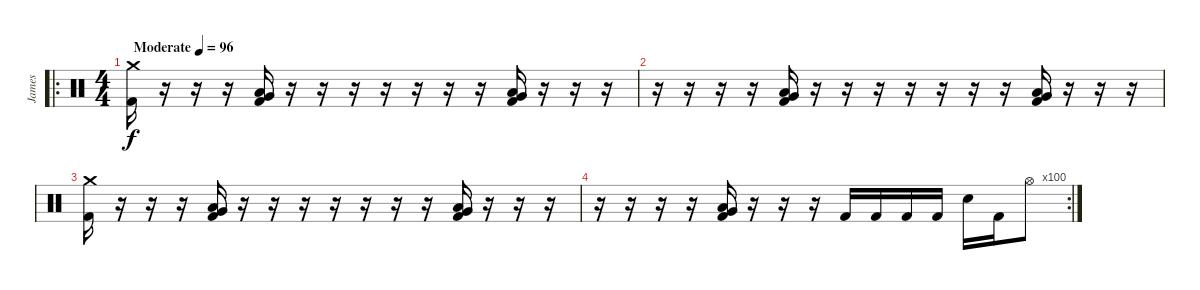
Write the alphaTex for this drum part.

\track ("James" "James") {instrument percussion}
\staff {score}
\articulation defaults
\ro
\ts (4 4)
\tempo (96 "Moderate")
\clef neutral
\ks c
("Crash medium (hit)" "Kick (hit) 2").16{dy f} r.16 r.16 r.16 ("Low Tom (hit)" "Very Low Tom (hit)" "Kick (hit) 2").16 r.16 r.16 r.16 r.16 r.16 r.16 r.16 ("Low Tom (hit)" "Very Low Tom (hit)" "Kick (hit) 2").16 r.16 r.16 r.16 |
r.16 r.16 r.16 r.16 ("Low Tom (hit)" "Very Low Tom (hit)" "Kick (hit) 2").16 r.16 r.16 r.16 r.16 r.16 r.16 r.16 ("Low Tom (hit)" "Very Low Tom (hit)" "Kick (hit) 2").16 r.16 r.16 r.16 |
("Crash medium (hit)" "Kick (hit) 2").16 r.16 r.16 r.16 ("Low Tom (hit)" "Very Low Tom (hit)" "Kick (hit) 2").16 r.16 r.16 r.16 r.16 r.16 r.16 r.16 ("Low Tom (hit)" "Very Low Tom (hit)" "Kick (hit) 2").16 r.16 r.16 r.16 |
\rc 100
r.16 r.16 r.16 r.16 ("Low Tom (hit)" "Very Low Tom (hit)" "Kick (hit) 2").16 r.16 r.16 r.16 "Kick (hit) 2".16 "Kick (hit) 2".16 "Kick (hit) 2".16 "Kick (hit) 2".16 "Electric Snare (hit)".16 "Kick (hit) 2".16 "Hi-Hat (open)".8
